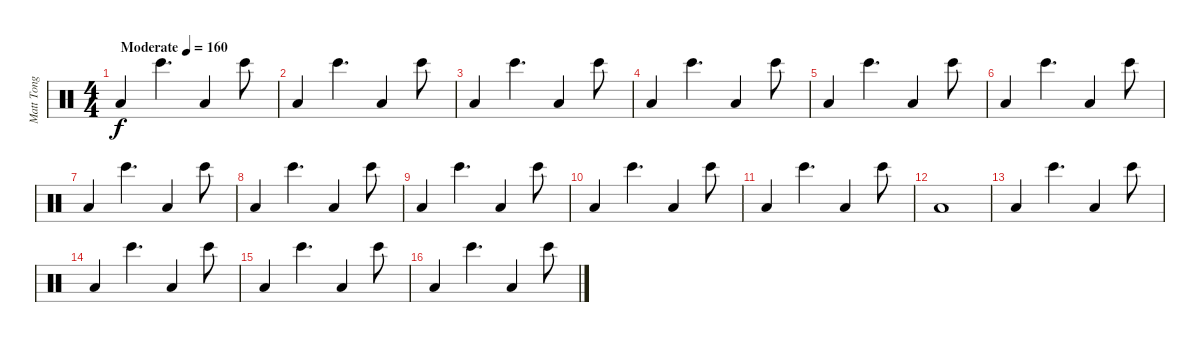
\track ("Matt Tong - Drums" "Matt Tong ") {instrument percussion}
\staff {score}
\articulation defaults
\ts (4 4)
\tempo (160 "Moderate")
\clef neutral
\ks c "Low Floor Tom (hit)".4{dy f} "Bongo High (hit)".4{d} "Low Floor Tom (hit)".4 "Bongo High (hit)".8
|
"Low Floor Tom (hit)".4 "Bongo High (hit)".4{d} "Low Floor Tom (hit)".4 "Bongo High (hit)".8 |
"Low Floor Tom (hit)".4 "Bongo High (hit)".4{d} "Low Floor Tom (hit)".4 "Bongo High (hit)".8 |
"Low Floor Tom (hit)".4 "Bongo High (hit)".4{d} "Low Floor Tom (hit)".4 "Bongo High (hit)".8 |
"Low Floor Tom (hit)".4 "Bongo High (hit)".4{d} "Low Floor Tom (hit)".4 "Bongo High (hit)".8 |
"Low Floor Tom (hit)".4 "Bongo High (hit)".4{d} "Low Floor Tom (hit)".4 "Bongo High (hit)".8 |
"Low Floor Tom (hit)".4 "Bongo High (hit)".4{d} "Low Floor Tom (hit)".4 "Bongo High (hit)".8 |
"Low Floor Tom (hit)".4 "Bongo High (hit)".4{d} "Low Floor Tom (hit)".4 "Bongo High (hit)".8 |
"Low Floor Tom (hit)".4 "Bongo High (hit)".4{d} "Low Floor Tom (hit)".4 "Bongo High (hit)".8 |
"Low Floor Tom (hit)".4 "Bongo High (hit)".4{d} "Low Floor Tom (hit)".4 "Bongo High (hit)".8 |
"Low Floor Tom (hit)".4 "Bongo High (hit)".4{d} "Low Floor Tom (hit)".4 "Bongo High (hit)".8 |
"Low Floor Tom (hit)".1 |
"Low Floor Tom (hit)".4 "Bongo High (hit)".4{d} "Low Floor Tom (hit)".4 "Bongo High (hit)".8 |
"Low Floor Tom (hit)".4 "Bongo High (hit)".4{d} "Low Floor Tom (hit)".4 "Bongo High (hit)".8 |
"Low Floor Tom (hit)".4 "Bongo High (hit)".4{d} "Low Floor Tom (hit)".4 "Bongo High (hit)".8 |
"Low Floor Tom (hit)".4 "Bongo High (hit)".4{d} "Low Floor Tom (hit)".4 "Bongo High (hit)".8
